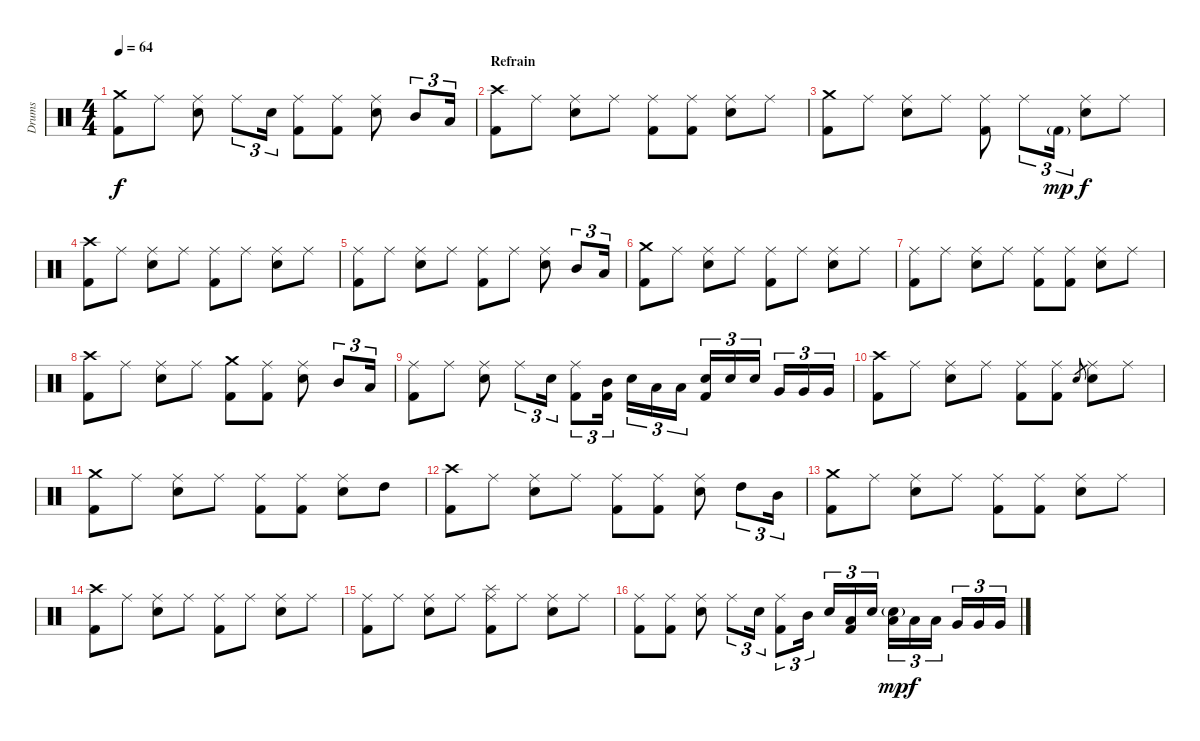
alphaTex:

\track ("Drums" "Drums") {instrument percussion}
\staff {score}
\articulation defaults
\ts (4 4)
\tempo 64
\clef neutral
\ks c
("Crash medium (hit)" "Kick (hit) 2").8{dy f} "Ride (middle)".8 ("Ride (middle)" "Electric Snare (hit)").8 "Ride (middle)".8{tu (3 2)} "Electric Snare (hit)".16{tu (3 2)} ("Ride (middle)" "Kick (hit) 2").8 ("Ride (middle)" "Kick (hit) 2").8 ("Ride (middle)" "Electric Snare (hit)").8 "Mid Tom (hit)".8{tu (3 2)} "Low Tom (hit)".16{tu (3 2)} |
\section ("" "Refrain")
("Crash high (hit)" "Kick (hit) 2").8 "Ride (middle)".8 ("Ride (middle)" "Electric Snare (hit)").8 "Ride (middle)".8 ("Ride (middle)" "Kick (hit) 2").8 ("Ride (middle)" "Kick (hit) 2").8 ("Ride (middle)" "Electric Snare (hit)").8 "Ride (middle)".8 |
("Crash medium (hit)" "Kick (hit) 2").8 "Ride (middle)".8 ("Ride (middle)" "Electric Snare (hit)").8 "Ride (middle)".8 ("Ride (middle)" "Kick (hit) 2").8 "Ride (middle)".8{tu (3 2)} "Kick (hit) 2"{g}.16{tu (3 2) dy mp} ("Ride (middle)" "Electric Snare (hit)").8{dy f} "Ride (middle)".8 |
("Crash high (hit)" "Kick (hit) 2").8 "Ride (middle)".8 ("Ride (middle)" "Electric Snare (hit)").8 "Ride (middle)".8 ("Ride (middle)" "Kick (hit) 2").8 "Ride (middle)".8 ("Ride (middle)" "Electric Snare (hit)").8 "Ride (middle)".8 |
("Ride (middle)" "Kick (hit) 2").8 "Ride (middle)".8 ("Ride (middle)" "Electric Snare (hit)").8 "Ride (middle)".8 ("Ride (middle)" "Kick (hit) 2").8 "Ride (middle)".8 ("Ride (middle)" "Electric Snare (hit)").8 "Mid Tom (hit)".8{tu (3 2)} "Low Tom (hit)".16{tu (3 2)} |
("Crash medium (hit)" "Kick (hit) 2").8 "Ride (middle)".8 ("Ride (middle)" "Electric Snare (hit)").8 "Ride (middle)".8 ("Ride (middle)" "Kick (hit) 2").8 "Ride (middle)".8 ("Ride (middle)" "Electric Snare (hit)").8 "Ride (middle)".8 |
("Ride (middle)" "Kick (hit) 2").8 "Ride (middle)".8 ("Ride (middle)" "Electric Snare (hit)").8 "Ride (middle)".8 ("Ride (middle)" "Kick (hit) 2").8 ("Ride (middle)" "Kick (hit) 2").8 ("Ride (middle)" "Electric Snare (hit)").8 "Ride (middle)".8 |
("Crash high (hit)" "Kick (hit) 2").8 "Ride (middle)".8 ("Ride (middle)" "Electric Snare (hit)").8 "Ride (middle)".8 ("Crash medium (hit)" "Kick (hit) 2").8 ("Ride (middle)" "Kick (hit) 2").8 ("Ride (middle)" "Electric Snare (hit)").8 "Mid Tom (hit)".8{tu (3 2)} "Low Tom (hit)".16{tu (3 2)} |
("Ride (middle)" "Kick (hit) 2").8 "Ride (middle)".8 ("Ride (middle)" "Electric Snare (hit)").8 "Ride (middle)".8{tu (3 2)} "Electric Snare (hit)".16{tu (3 2)} ("Ride (middle)" "Kick (hit) 2").8{tu (3 2)} ("Mid Tom (hit)" "Kick (hit) 2").16{tu (3 2)} "Electric Snare (hit)".16{tu (3 2)} "Low Tom (hit)".16{tu (3 2)} "Low Tom (hit)".16{tu (3 2)} ("Electric Snare (hit)" "Kick (hit) 2").16{tu (3 2)} "Electric Snare (hit)".16{tu (3 2)} "Electric Snare (hit)".16{tu (3 2)} "Very Low Tom (hit)".16{tu (3 2)} "Very Low Tom (hit)".16{tu (3 2)} "Very Low Tom (hit)".16{tu (3 2)} |
("Crash high (hit)" "Kick (hit) 2").8 "Ride (middle)".8 ("Ride (middle)" "Electric Snare (hit)").8 "Ride (middle)".8 ("Ride (middle)" "Kick (hit) 2").8 ("Ride (middle)" "Kick (hit) 2").8 "Electric Snare (hit)".8{gr} ("Ride (middle)" "Electric Snare (hit)").8 "Ride (middle)".8 |
("Crash medium (hit)" "Kick (hit) 2").8 "Ride (middle)".8 ("Ride (middle)" "Electric Snare (hit)").8 "Ride (middle)".8 ("Ride (middle)" "Kick (hit) 2").8 ("Ride (middle)" "Kick (hit) 2").8 ("Ride (middle)" "Electric Snare (hit)").8 "High Tom (hit)".8 |
("Crash high (hit)" "Kick (hit) 2").8 "Ride (middle)".8 ("Ride (middle)" "Electric Snare (hit)").8 "Ride (middle)".8 ("Ride (middle)" "Kick (hit) 2").8 ("Ride (middle)" "Kick (hit) 2").8 ("Ride (middle)" "Electric Snare (hit)").8 "High Tom (hit)".8{tu (3 2)} "Mid Tom (hit)".16{tu (3 2)} |
("Crash medium (hit)" "Kick (hit) 2").8 "Ride (middle)".8 ("Ride (middle)" "Electric Snare (hit)").8 "Ride (middle)".8 ("Ride (middle)" "Kick (hit) 2").8 ("Ride (middle)" "Kick (hit) 2").8 ("Ride (middle)" "Electric Snare (hit)").8 "Ride (middle)".8 |
("Crash high (hit)" "Kick (hit) 2").8 "Ride (middle)".8 ("Ride (middle)" "Electric Snare (hit)").8 "Ride (middle)".8 ("Ride (middle)" "Kick (hit) 2").8 "Ride (middle)".8 ("Ride (middle)" "Electric Snare (hit)").8 "Ride (middle)".8 |
("Ride (middle)" "Kick (hit) 2").8 "Ride (middle)".8 ("Ride (middle)" "Electric Snare (hit)").8 "Ride (middle)".8 ("Splash (hit)" "Ride (middle)" "Kick (hit) 2").8 "Ride (middle)".8 ("Ride (middle)" "Electric Snare (hit)").8 "Ride (middle)".8 |
("Ride (middle)" "Kick (hit) 2").8 ("Ride (middle)" "Kick (hit) 2").8 ("Ride (middle)" "Electric Snare (hit)").8 "Ride (middle)".8{tu (3 2)} "Electric Snare (hit)".16{tu (3 2)} ("Ride (middle)" "Kick (hit) 2").8{tu (3 2)} "Mid Tom (hit)".16{tu (3 2)} "Electric Snare (hit)".16{tu (3 2)} ("Low Tom (hit)" "Kick (hit) 2").16{tu (3 2)} "Electric Snare (hit)".16{tu (3 2)} ("Electric Snare (hit)"{g} "Low Tom (hit)").16{tu (3 2) dy mp} "Low Tom (hit)".16{tu (3 2) dy f} "Low Tom (hit)".16{tu (3 2)} "Very Low Tom (hit)".16{tu (3 2)} "Very Low Tom (hit)".16{tu (3 2)} "Very Low Tom (hit)".16{tu (3 2)}
